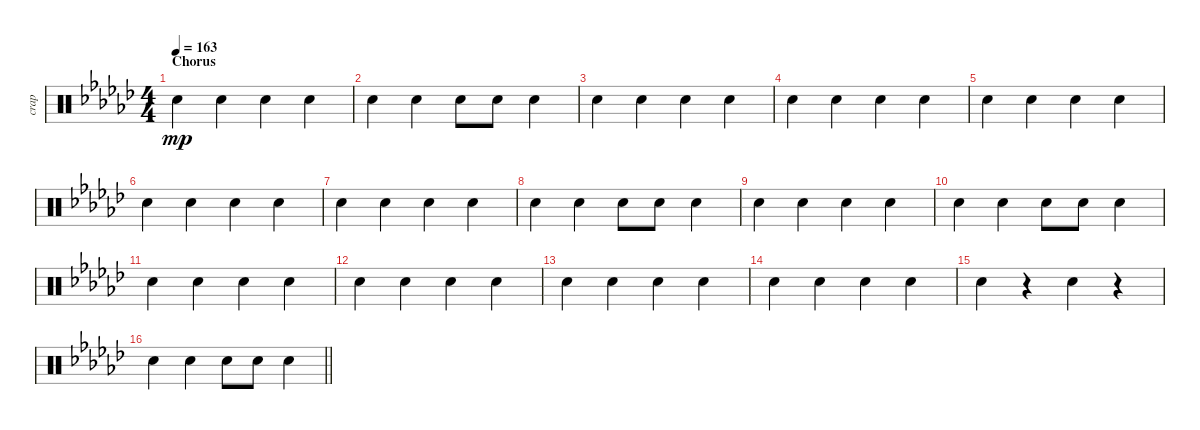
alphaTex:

\track ("crap" "crap") {mute instrument percussion}
\staff {score}
\articulation defaults
\ts (4 4)
\section ("" "Chorus")
\tempo 163
\clef neutral
\ks gb "Hand Clap (hit)".4{dy mp} "Hand Clap (hit)".4 "Hand Clap (hit)".4 "Hand Clap (hit)".4
|
"Hand Clap (hit)".4 "Hand Clap (hit)".4 "Hand Clap (hit)".8 "Hand Clap (hit)".8 "Hand Clap (hit)".4 |
"Hand Clap (hit)".4 "Hand Clap (hit)".4 "Hand Clap (hit)".4 "Hand Clap (hit)".4 |
"Hand Clap (hit)".4 "Hand Clap (hit)".4 "Hand Clap (hit)".4 "Hand Clap (hit)".4 |
"Hand Clap (hit)".4 "Hand Clap (hit)".4 "Hand Clap (hit)".4 "Hand Clap (hit)".4 |
"Hand Clap (hit)".4 "Hand Clap (hit)".4 "Hand Clap (hit)".4 "Hand Clap (hit)".4 |
"Hand Clap (hit)".4 "Hand Clap (hit)".4 "Hand Clap (hit)".4 "Hand Clap (hit)".4 |
"Hand Clap (hit)".4 "Hand Clap (hit)".4 "Hand Clap (hit)".8 "Hand Clap (hit)".8 "Hand Clap (hit)".4 |
"Hand Clap (hit)".4 "Hand Clap (hit)".4 "Hand Clap (hit)".4 "Hand Clap (hit)".4 |
"Hand Clap (hit)".4 "Hand Clap (hit)".4 "Hand Clap (hit)".8 "Hand Clap (hit)".8 "Hand Clap (hit)".4 |
"Hand Clap (hit)".4 "Hand Clap (hit)".4 "Hand Clap (hit)".4 "Hand Clap (hit)".4 |
"Hand Clap (hit)".4 "Hand Clap (hit)".4 "Hand Clap (hit)".4 "Hand Clap (hit)".4 |
"Hand Clap (hit)".4 "Hand Clap (hit)".4 "Hand Clap (hit)".4 "Hand Clap (hit)".4 |
"Hand Clap (hit)".4 "Hand Clap (hit)".4 "Hand Clap (hit)".4 "Hand Clap (hit)".4 |
"Hand Clap (hit)".4 r.4 "Hand Clap (hit)".4 r.4 |
\barLineRight lightlight "Hand Clap (hit)".4 "Hand Clap (hit)".4 "Hand Clap (hit)".8 "Hand Clap (hit)".8 "Hand Clap (hit)".4
